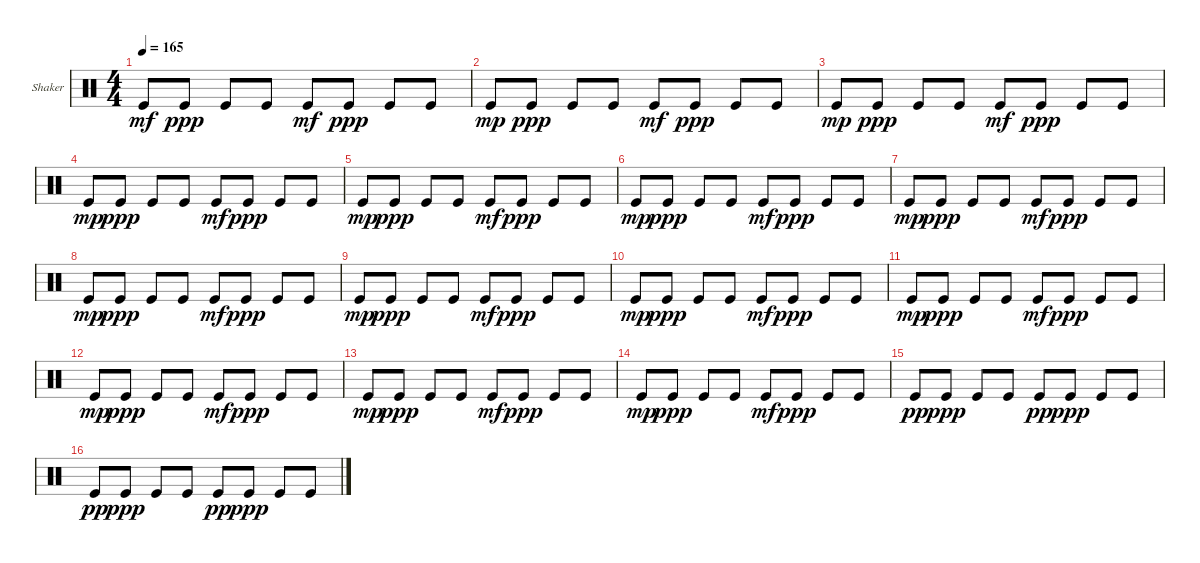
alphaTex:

\defaultSystemsLayout 4
\bracketExtendMode groupsimilarinstruments
\firstSystemTrackNameOrientation horizontal
\otherSystemsTrackNameOrientation horizontal
\track ("Shaker" "Shaker") {instrument percussion}
\staff {score}
\articulation defaults
\ts (4 4)
\tempo 165
\clef neutral
\ks c "Kick (hit)".8{dy mf} "Kick (hit)".8{dy ppp} "Kick (hit)".8 "Kick (hit)".8 "Kick (hit)".8{dy mf} "Kick (hit)".8{dy ppp} "Kick (hit)".8 "Kick (hit)".8
|
"Kick (hit)".8{dy mp} "Kick (hit)".8{dy ppp} "Kick (hit)".8 "Kick (hit)".8 "Kick (hit)".8{dy mf} "Kick (hit)".8{dy ppp} "Kick (hit)".8 "Kick (hit)".8 |
"Kick (hit)".8{dy mp} "Kick (hit)".8{dy ppp} "Kick (hit)".8 "Kick (hit)".8 "Kick (hit)".8{dy mf} "Kick (hit)".8{dy ppp} "Kick (hit)".8 "Kick (hit)".8 |
"Kick (hit)".8{dy mp} "Kick (hit)".8{dy ppp} "Kick (hit)".8 "Kick (hit)".8 "Kick (hit)".8{dy mf} "Kick (hit)".8{dy ppp} "Kick (hit)".8 "Kick (hit)".8 |
"Kick (hit)".8{dy mp} "Kick (hit)".8{dy ppp} "Kick (hit)".8 "Kick (hit)".8 "Kick (hit)".8{dy mf} "Kick (hit)".8{dy ppp} "Kick (hit)".8 "Kick (hit)".8 |
"Kick (hit)".8{dy mp} "Kick (hit)".8{dy ppp} "Kick (hit)".8 "Kick (hit)".8 "Kick (hit)".8{dy mf} "Kick (hit)".8{dy ppp} "Kick (hit)".8 "Kick (hit)".8 |
"Kick (hit)".8{dy mp} "Kick (hit)".8{dy ppp} "Kick (hit)".8 "Kick (hit)".8 "Kick (hit)".8{dy mf} "Kick (hit)".8{dy ppp} "Kick (hit)".8 "Kick (hit)".8 |
"Kick (hit)".8{dy mp} "Kick (hit)".8{dy ppp} "Kick (hit)".8 "Kick (hit)".8 "Kick (hit)".8{dy mf} "Kick (hit)".8{dy ppp} "Kick (hit)".8 "Kick (hit)".8 |
"Kick (hit)".8{dy mp} "Kick (hit)".8{dy ppp} "Kick (hit)".8 "Kick (hit)".8 "Kick (hit)".8{dy mf} "Kick (hit)".8{dy ppp} "Kick (hit)".8 "Kick (hit)".8 |
"Kick (hit)".8{dy mp} "Kick (hit)".8{dy ppp} "Kick (hit)".8 "Kick (hit)".8 "Kick (hit)".8{dy mf} "Kick (hit)".8{dy ppp} "Kick (hit)".8 "Kick (hit)".8 |
"Kick (hit)".8{dy mp} "Kick (hit)".8{dy ppp} "Kick (hit)".8 "Kick (hit)".8 "Kick (hit)".8{dy mf} "Kick (hit)".8{dy ppp} "Kick (hit)".8 "Kick (hit)".8 |
"Kick (hit)".8{dy mp} "Kick (hit)".8{dy ppp} "Kick (hit)".8 "Kick (hit)".8 "Kick (hit)".8{dy mf} "Kick (hit)".8{dy ppp} "Kick (hit)".8 "Kick (hit)".8 |
"Kick (hit)".8{dy mp} "Kick (hit)".8{dy ppp} "Kick (hit)".8 "Kick (hit)".8 "Kick (hit)".8{dy mf} "Kick (hit)".8{dy ppp} "Kick (hit)".8 "Kick (hit)".8 |
"Kick (hit)".8{dy mp} "Kick (hit)".8{dy ppp} "Kick (hit)".8 "Kick (hit)".8 "Kick (hit)".8{dy mf} "Kick (hit)".8{dy ppp} "Kick (hit)".8 "Kick (hit)".8 |
"Kick (hit)".8{dy pp} "Kick (hit)".8{dy ppp} "Kick (hit)".8 "Kick (hit)".8 "Kick (hit)".8{dy pp} "Kick (hit)".8{dy ppp} "Kick (hit)".8 "Kick (hit)".8 |
"Kick (hit)".8{dy pp} "Kick (hit)".8{dy ppp} "Kick (hit)".8 "Kick (hit)".8 "Kick (hit)".8{dy pp} "Kick (hit)".8{dy ppp} "Kick (hit)".8 "Kick (hit)".8
